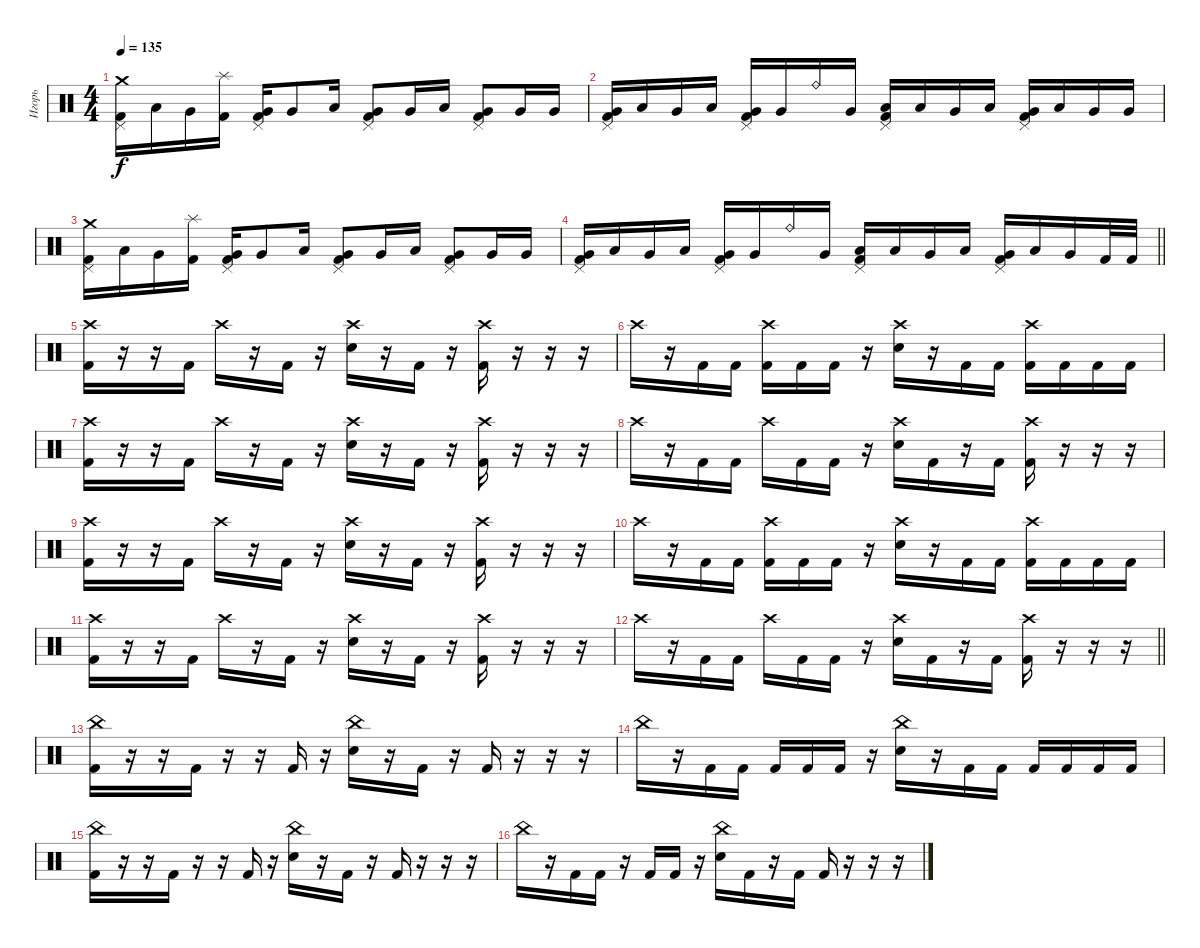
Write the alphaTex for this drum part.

\track ("Игорь" "Игорь") {instrument percussion}
\staff {score}
\articulation defaults
\ts (4 4)
\tempo 135
\clef neutral
\ks c
("Crash medium (hit)" "Pedal Hi-Hat (hit)" "Kick (hit) 2").16{dy f} "Low Tom (hit)".16 "Very Low Tom (hit)".16 ("Splash (hit)" "Kick (hit) 2").16 ("Very Low Tom (hit)" "Pedal Hi-Hat (hit)" "Kick (hit) 2").16 "Very Low Tom (hit)".8 "Low Tom (hit)".16 ("Very Low Tom (hit)" "Pedal Hi-Hat (hit)" "Kick (hit) 2").8 "Very Low Tom (hit)".16 "Low Tom (hit)".16 ("Very Low Tom (hit)" "Pedal Hi-Hat (hit)" "Kick (hit) 2").8 "Very Low Tom (hit)".16 "Very Low Tom (hit)".16 |
("Very Low Tom (hit)" "Pedal Hi-Hat (hit)" "Kick (hit) 2").16 "Low Tom (hit)".16 "Very Low Tom (hit)".16 "Low Tom (hit)".16 ("Very Low Tom (hit)" "Pedal Hi-Hat (hit)" "Kick (hit) 2").16 "Very Low Tom (hit)".16 "Ride (bell)".16 "Very Low Tom (hit)".16 ("Low Tom (hit)" "Pedal Hi-Hat (hit)" "Kick (hit) 2").16 "Low Tom (hit)".16 "Very Low Tom (hit)".16 "Low Tom (hit)".16 ("Very Low Tom (hit)" "Pedal Hi-Hat (hit)" "Kick (hit) 2").16 "Low Tom (hit)".16 "Very Low Tom (hit)".16 "Very Low Tom (hit)".16 |
("Crash medium (hit)" "Pedal Hi-Hat (hit)" "Kick (hit) 2").16 "Low Tom (hit)".16 "Very Low Tom (hit)".16 ("Splash (hit)" "Kick (hit) 2").16 ("Very Low Tom (hit)" "Pedal Hi-Hat (hit)" "Kick (hit) 2").16 "Very Low Tom (hit)".8 "Low Tom (hit)".16 ("Very Low Tom (hit)" "Pedal Hi-Hat (hit)" "Kick (hit) 2").8 "Very Low Tom (hit)".16 "Low Tom (hit)".16 ("Very Low Tom (hit)" "Pedal Hi-Hat (hit)" "Kick (hit) 2").8 "Very Low Tom (hit)".16 "Very Low Tom (hit)".16 |
\barLineRight lightlight
("Very Low Tom (hit)" "Pedal Hi-Hat (hit)" "Kick (hit) 2").16 "Low Tom (hit)".16 "Very Low Tom (hit)".16 "Low Tom (hit)".16 ("Very Low Tom (hit)" "Pedal Hi-Hat (hit)" "Kick (hit) 2").16 "Very Low Tom (hit)".16 "Ride (bell)".16 "Very Low Tom (hit)".16 ("Low Tom (hit)" "Pedal Hi-Hat (hit)" "Kick (hit) 2").16 "Low Tom (hit)".16 "Very Low Tom (hit)".16 "Low Tom (hit)".16 ("Very Low Tom (hit)" "Pedal Hi-Hat (hit)" "Kick (hit) 2").16 "Low Tom (hit)".16 "Very Low Tom (hit)".16 "Kick (hit) 2".32 "Kick (hit) 2".32 |
("Crash high (hit)" "Kick (hit) 2").16 r.16 r.16 "Kick (hit) 2".16 "Crash high (hit)".16 r.16 "Kick (hit) 2".16 r.16 ("Crash high (hit)" "Electric Snare (hit)").16 r.16 "Kick (hit) 2".16 r.16 ("Crash high (hit)" "Kick (hit) 2").16 r.16 r.16 r.16 |
"Crash high (hit)".16 r.16 "Kick (hit) 2".16 "Kick (hit) 2".16 ("Crash high (hit)" "Kick (hit) 2").16 "Kick (hit) 2".16 "Kick (hit) 2".16 r.16 ("Crash high (hit)" "Electric Snare (hit)").16 r.16 "Kick (hit) 2".16 "Kick (hit) 2".16 ("Crash high (hit)" "Kick (hit) 2").16 "Kick (hit) 2".16 "Kick (hit) 2".16 "Kick (hit) 2".16 |
("Crash high (hit)" "Kick (hit) 2").16 r.16 r.16 "Kick (hit) 2".16 "Crash high (hit)".16 r.16 "Kick (hit) 2".16 r.16 ("Crash high (hit)" "Electric Snare (hit)").16 r.16 "Kick (hit) 2".16 r.16 ("Crash high (hit)" "Kick (hit) 2").16 r.16 r.16 r.16 |
"Crash high (hit)".16 r.16 "Kick (hit) 2".16 "Kick (hit) 2".16 "Crash high (hit)".16 "Kick (hit) 2".16 "Kick (hit) 2".16 r.16 ("Crash high (hit)" "Electric Snare (hit)").16 "Kick (hit) 2".16 r.16 "Kick (hit) 2".16 ("Crash high (hit)" "Kick (hit) 2").16 r.16 r.16 r.16 |
("Crash high (hit)" "Kick (hit) 2").16 r.16 r.16 "Kick (hit) 2".16 "Crash high (hit)".16 r.16 "Kick (hit) 2".16 r.16 ("Crash high (hit)" "Electric Snare (hit)").16 r.16 "Kick (hit) 2".16 r.16 ("Crash high (hit)" "Kick (hit) 2").16 r.16 r.16 r.16 |
"Crash high (hit)".16 r.16 "Kick (hit) 2".16 "Kick (hit) 2".16 ("Crash high (hit)" "Kick (hit) 2").16 "Kick (hit) 2".16 "Kick (hit) 2".16 r.16 ("Crash high (hit)" "Electric Snare (hit)").16 r.16 "Kick (hit) 2".16 "Kick (hit) 2".16 ("Crash high (hit)" "Kick (hit) 2").16 "Kick (hit) 2".16 "Kick (hit) 2".16 "Kick (hit) 2".16 |
("Crash high (hit)" "Kick (hit) 2").16 r.16 r.16 "Kick (hit) 2".16 "Crash high (hit)".16 r.16 "Kick (hit) 2".16 r.16 ("Crash high (hit)" "Electric Snare (hit)").16 r.16 "Kick (hit) 2".16 r.16 ("Crash high (hit)" "Kick (hit) 2").16 r.16 r.16 r.16 |
\barLineRight lightlight "Crash high (hit)".16
r.16 "Kick (hit) 2".16 "Kick (hit) 2".16 "Crash high (hit)".16 "Kick (hit) 2".16 "Kick (hit) 2".16 r.16 ("Crash high (hit)" "Electric Snare (hit)").16 "Kick (hit) 2".16 r.16 "Kick (hit) 2".16 ("Crash high (hit)" "Kick (hit) 2").16 r.16 r.16 r.16 |
("China (hit)" "Kick (hit) 2").16 r.16 r.16 "Kick (hit) 2".16 r.16 r.16 "Kick (hit) 2".16 r.16 ("China (hit)" "Electric Snare (hit)").16 r.16 "Kick (hit) 2".16 r.16 "Kick (hit) 2".16 r.16 r.16 r.16 |
"China (hit)".16 r.16 "Kick (hit) 2".16 "Kick (hit) 2".16 "Kick (hit) 2".16 "Kick (hit) 2".16 "Kick (hit) 2".16 r.16 ("China (hit)" "Electric Snare (hit)").16 r.16 "Kick (hit) 2".16 "Kick (hit) 2".16 "Kick (hit) 2".16 "Kick (hit) 2".16 "Kick (hit) 2".16 "Kick (hit) 2".16 |
("China (hit)" "Kick (hit) 2").16 r.16 r.16 "Kick (hit) 2".16 r.16 r.16 "Kick (hit) 2".16 r.16 ("China (hit)" "Electric Snare (hit)").16 r.16 "Kick (hit) 2".16 r.16 "Kick (hit) 2".16 r.16 r.16 r.16 |
"China (hit)".16 r.16 "Kick (hit) 2".16 "Kick (hit) 2".16 r.16 "Kick (hit) 2".16 "Kick (hit) 2".16 r.16 ("China (hit)" "Electric Snare (hit)").16 "Kick (hit) 2".16 r.16 "Kick (hit) 2".16 "Kick (hit) 2".16 r.16 r.16 r.16
